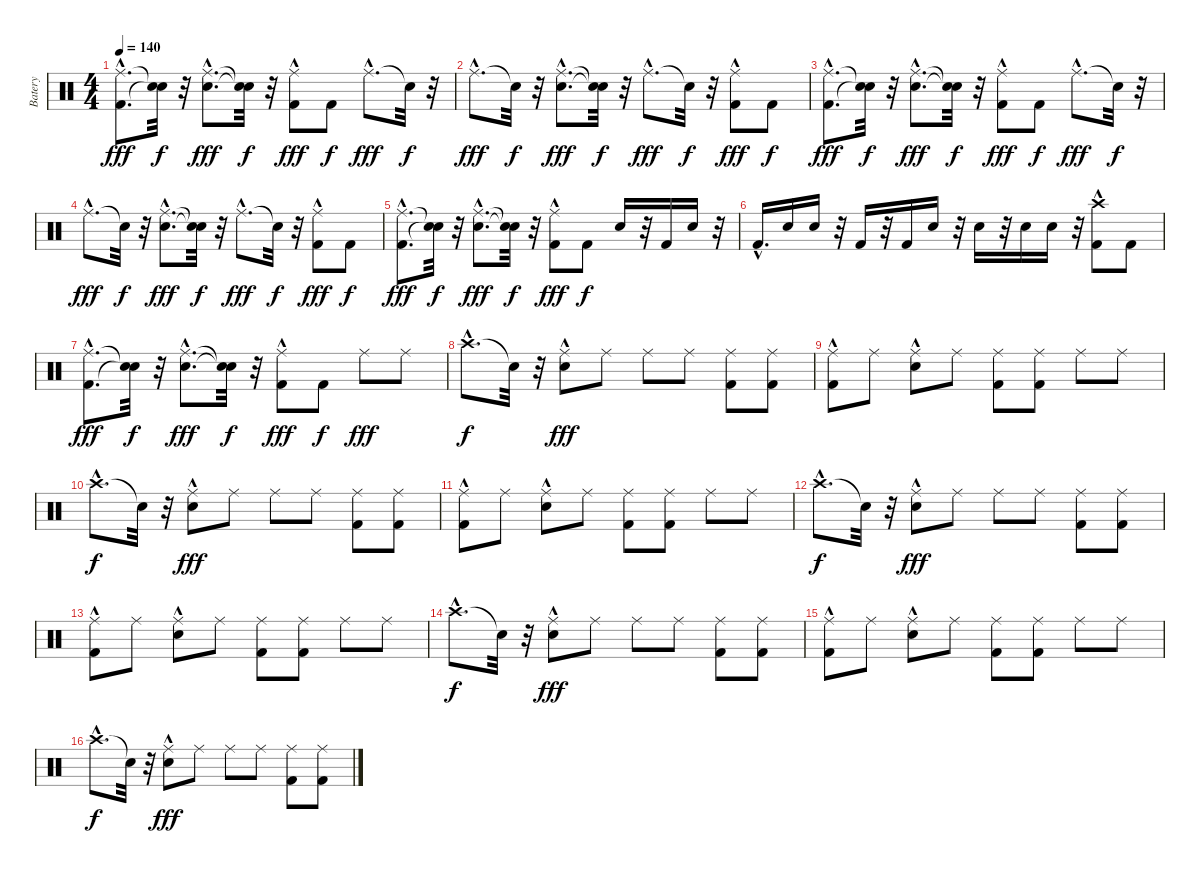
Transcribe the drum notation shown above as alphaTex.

\track ("Batery" "Batery") {instrument percussion}
\staff {score}
\articulation defaults
\ts (4 4)
\tempo 140
\clef neutral
\ks c
("Ride (middle)"{hac} "Kick (hit) 2"{hac}).8{d dy fff} ("Snare (hit)"{t} "Snare (hit)"{t}).32{dy f} r.32 ("Ride (middle)"{hac} "Snare (hit) 2"{hac}).8{d dy fff} ("Snare (hit)"{t} "Snare (hit)"{t}).32{dy f} r.32 ("Ride (middle)"{hac} "Kick (hit) 2").8{dy fff} "Kick (hit) 2".8{dy f} "Ride (middle)"{hac}.8{d dy fff} "Snare (hit)"{t}.32{dy f} r.32 |
"Ride (middle)"{hac}.8{d dy fff} "Snare (hit)"{t}.32{dy f} r.32 ("Ride (middle)"{hac} "Snare (hit) 2"{hac}).8{d dy fff} ("Snare (hit)"{t} "Snare (hit)"{t}).32{dy f} r.32 "Ride (middle)"{hac}.8{d dy fff} "Snare (hit)"{t}.32{dy f} r.32 ("Ride (middle)"{hac} "Kick (hit) 2").8{dy fff} "Kick (hit) 2".8{dy f} |
("Ride (middle)"{hac} "Kick (hit) 2"{hac}).8{d dy fff} ("Snare (hit)"{t} "Snare (hit)"{t}).32{dy f} r.32 ("Ride (middle)"{hac} "Snare (hit) 2"{hac}).8{d dy fff} ("Snare (hit)"{t} "Snare (hit)"{t}).32{dy f} r.32 ("Ride (middle)"{hac} "Kick (hit) 2").8{dy fff} "Kick (hit) 2".8{dy f} "Ride (middle)"{hac}.8{d dy fff} "Snare (hit)"{t}.32{dy f} r.32 |
"Ride (middle)"{hac}.8{d dy fff} "Snare (hit)"{t}.32{dy f} r.32 ("Ride (middle)"{hac} "Snare (hit) 2"{hac}).8{d dy fff} ("Snare (hit)"{t} "Snare (hit)"{t}).32{dy f} r.32 "Ride (middle)"{hac}.8{d dy fff} "Snare (hit)"{t}.32{dy f} r.32 ("Ride (middle)"{hac} "Kick (hit) 2").8{dy fff} "Kick (hit) 2".8{dy f} |
("Ride (middle)"{hac} "Kick (hit) 2"{hac}).8{d dy fff} ("Snare (hit)"{t} "Snare (hit)"{t}).32{dy f} r.32 ("Ride (middle)"{hac} "Snare (hit) 2"{hac}).8{d dy fff} ("Snare (hit)"{t} "Snare (hit)"{t}).32{dy f} r.32 ("Ride (middle)"{hac} "Kick (hit) 2").8{dy fff} "Kick (hit) 2".8{dy f} "Snare (hit) 2".16 r.32 "Kick (hit) 2".16 "Snare (hit) 2".16 r.32 |
"Kick (hit) 2"{hac}.16{d} "Snare (hit) 2".16 "Snare (hit) 2".16 r.32 "Kick (hit) 2".16 r.32 "Kick (hit) 2".16 "Snare (hit) 2".16 r.32 "Snare (hit) 2".16 r.32 "Snare (hit) 2".16 "Snare (hit) 2".16 r.32 ("Crash high (hit)"{hac} "Kick (hit) 2").8 "Kick (hit) 2".8 |
("Ride (middle)"{hac} "Kick (hit) 2"{hac}).8{d dy fff} ("Snare (hit)"{t} "Snare (hit)"{t}).32{dy f} r.32 ("Ride (middle)"{hac} "Snare (hit) 2"{hac}).8{d dy fff} ("Snare (hit)"{t} "Snare (hit)"{t}).32{dy f} r.32 ("Ride (middle)"{hac} "Kick (hit) 2").8{dy fff} "Kick (hit) 2".8{dy f} "Ride (middle)".8{dy fff} "Ride (middle)".8 |
"Crash high (hit)"{hac}.8{d dy f} "Snare (hit)"{t}.32 r.32 ("Ride (middle)" "Snare (hit) 2"{hac}).8{dy fff} "Ride (middle)".8 "Ride (middle)".8 "Ride (middle)".8 ("Kick (hit) 2" "Ride (middle)").8 ("Kick (hit) 2" "Ride (middle)").8 |
("Kick (hit) 2"{hac} "Ride (middle)").8 "Ride (middle)".8 ("Snare (hit) 2"{hac} "Ride (middle)").8 "Ride (middle)".8 ("Kick (hit) 2" "Ride (middle)").8 ("Kick (hit) 2" "Ride (middle)").8 "Ride (middle)".8 "Ride (middle)".8 |
"Crash high (hit)"{hac}.8{d dy f} "Snare (hit)"{t}.32 r.32 ("Ride (middle)" "Snare (hit) 2"{hac}).8{dy fff} "Ride (middle)".8 "Ride (middle)".8 "Ride (middle)".8 ("Kick (hit) 2" "Ride (middle)").8 ("Kick (hit) 2" "Ride (middle)").8 |
("Kick (hit) 2"{hac} "Ride (middle)").8 "Ride (middle)".8 ("Snare (hit) 2"{hac} "Ride (middle)").8 "Ride (middle)".8 ("Kick (hit) 2" "Ride (middle)").8 ("Kick (hit) 2" "Ride (middle)").8 "Ride (middle)".8 "Ride (middle)".8 |
"Crash high (hit)"{hac}.8{d dy f} "Snare (hit)"{t}.32 r.32 ("Ride (middle)" "Snare (hit) 2"{hac}).8{dy fff} "Ride (middle)".8 "Ride (middle)".8 "Ride (middle)".8 ("Kick (hit) 2" "Ride (middle)").8 ("Kick (hit) 2" "Ride (middle)").8 |
("Kick (hit) 2"{hac} "Ride (middle)").8 "Ride (middle)".8 ("Snare (hit) 2"{hac} "Ride (middle)").8 "Ride (middle)".8 ("Kick (hit) 2" "Ride (middle)").8 ("Kick (hit) 2" "Ride (middle)").8 "Ride (middle)".8 "Ride (middle)".8 |
"Crash high (hit)"{hac}.8{d dy f} "Snare (hit)"{t}.32 r.32 ("Ride (middle)" "Snare (hit) 2"{hac}).8{dy fff} "Ride (middle)".8 "Ride (middle)".8 "Ride (middle)".8 ("Kick (hit) 2" "Ride (middle)").8 ("Kick (hit) 2" "Ride (middle)").8 |
("Kick (hit) 2"{hac} "Ride (middle)").8 "Ride (middle)".8 ("Snare (hit) 2"{hac} "Ride (middle)").8 "Ride (middle)".8 ("Kick (hit) 2" "Ride (middle)").8 ("Kick (hit) 2" "Ride (middle)").8 "Ride (middle)".8 "Ride (middle)".8 |
"Crash high (hit)"{hac}.8{d dy f} "Snare (hit)"{t}.32 r.32 ("Ride (middle)" "Snare (hit) 2"{hac}).8{dy fff} "Ride (middle)".8 "Ride (middle)".8 "Ride (middle)".8 ("Kick (hit) 2" "Ride (middle)").8 ("Kick (hit) 2" "Ride (middle)").8
